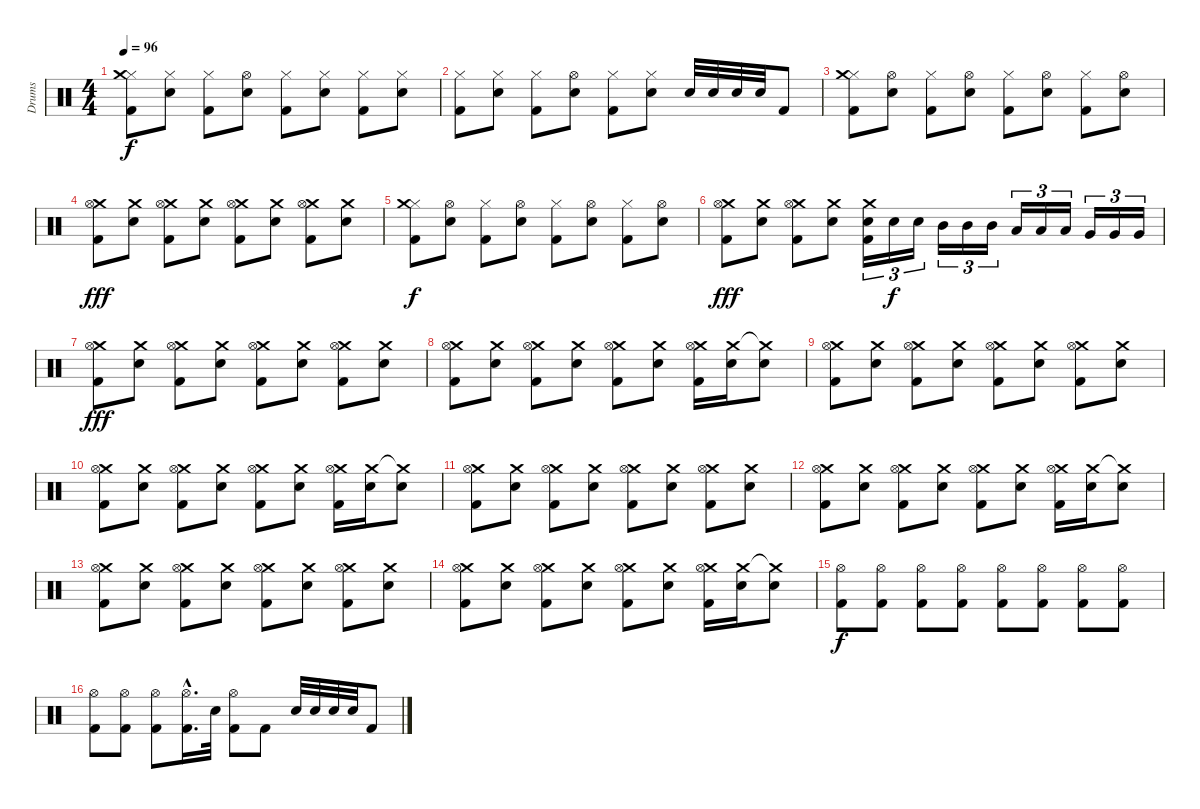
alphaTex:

\track ("Drums" "Drums") {instrument percussion}
\staff {score}
\articulation defaults
\ts (4 4)
\tempo 96
\clef neutral
\ks c
("Hi-Hat (closed)" "Crash medium (hit)" "Kick (hit) 2").8{dy f} ("Hi-Hat (closed)" "Snare (hit) 2").8 ("Hi-Hat (closed)" "Kick (hit) 2").8 ("Hi-Hat (open)" "Snare (hit) 2").8 ("Hi-Hat (closed)" "Kick (hit) 2").8 ("Hi-Hat (closed)" "Snare (hit) 2").8 ("Hi-Hat (closed)" "Kick (hit) 2").8 ("Hi-Hat (closed)" "Snare (hit) 2").8 |
("Hi-Hat (closed)" "Kick (hit) 2").8 ("Hi-Hat (closed)" "Snare (hit) 2").8 ("Hi-Hat (closed)" "Kick (hit) 2").8 ("Hi-Hat (open)" "Snare (hit) 2").8 ("Hi-Hat (closed)" "Kick (hit) 2").8 ("Hi-Hat (closed)" "Snare (hit) 2").8 "Snare (hit) 2".32 "Snare (hit) 2".32 "Snare (hit) 2".32 "Snare (hit) 2".32 "Kick (hit) 2".8 |
("Hi-Hat (closed)" "Crash medium (hit)" "Kick (hit) 2").8 ("Hi-Hat (open)" "Snare (hit) 2").8 ("Hi-Hat (closed)" "Kick (hit) 2").8 ("Hi-Hat (open)" "Snare (hit) 2").8 ("Hi-Hat (closed)" "Kick (hit) 2").8 ("Hi-Hat (open)" "Snare (hit) 2").8 ("Hi-Hat (closed)" "Kick (hit) 2").8 ("Hi-Hat (open)" "Snare (hit) 2").8 |
("Crash medium (hit)" "Hi-Hat (open)" "Kick (hit) 2").8{dy fff} ("Crash medium (hit)" "Snare (hit) 2").8 ("Crash medium (hit)" "Hi-Hat (open)" "Kick (hit) 2").8 ("Crash medium (hit)" "Snare (hit) 2").8 ("Crash medium (hit)" "Hi-Hat (open)" "Kick (hit) 2").8 ("Crash medium (hit)" "Snare (hit) 2").8 ("Crash medium (hit)" "Hi-Hat (open)" "Kick (hit) 2").8 ("Crash medium (hit)" "Snare (hit) 2").8 |
("Hi-Hat (closed)" "Crash medium (hit)" "Kick (hit) 2").8{dy f} ("Hi-Hat (open)" "Snare (hit) 2").8 ("Hi-Hat (closed)" "Kick (hit) 2").8 ("Hi-Hat (open)" "Snare (hit) 2").8 ("Hi-Hat (closed)" "Kick (hit) 2").8 ("Hi-Hat (open)" "Snare (hit) 2").8 ("Hi-Hat (closed)" "Kick (hit) 2").8 ("Hi-Hat (open)" "Snare (hit) 2").8 |
("Crash medium (hit)" "Hi-Hat (open)" "Kick (hit) 2").8{dy fff} ("Crash medium (hit)" "Snare (hit) 2").8 ("Crash medium (hit)" "Hi-Hat (open)" "Kick (hit) 2").8 ("Crash medium (hit)" "Snare (hit) 2").8 ("Crash medium (hit)" "Snare (hit) 2" "Kick (hit) 2").16{tu (3 2)} "Snare (hit) 2".16{tu (3 2) dy f} "Snare (hit) 2".16{tu (3 2)} "Mid Tom (hit)".16{tu (3 2)} "Mid Tom (hit)".16{tu (3 2)} "Mid Tom (hit)".16{tu (3 2)} "Low Tom (hit)".16{tu (3 2)} "Low Tom (hit)".16{tu (3 2)} "Low Tom (hit)".16{tu (3 2)} "Very Low Tom (hit)".16{tu (3 2)} "Very Low Tom (hit)".16{tu (3 2)} "Very Low Tom (hit)".16{tu (3 2)} |
("Crash medium (hit)" "Hi-Hat (open)" "Kick (hit) 2").8{dy fff} ("Crash medium (hit)" "Snare (hit) 2").8 ("Crash medium (hit)" "Hi-Hat (open)" "Kick (hit) 2").8 ("Crash medium (hit)" "Snare (hit) 2").8 ("Crash medium (hit)" "Hi-Hat (open)" "Kick (hit) 2").8 ("Crash medium (hit)" "Snare (hit) 2").8 ("Crash medium (hit)" "Hi-Hat (open)" "Kick (hit) 2").8 ("Crash medium (hit)" "Snare (hit) 2").8 |
("Crash medium (hit)" "Hi-Hat (open)" "Kick (hit) 2").8 ("Crash medium (hit)" "Snare (hit) 2").8 ("Crash medium (hit)" "Hi-Hat (open)" "Kick (hit) 2").8 ("Crash medium (hit)" "Snare (hit) 2").8 ("Crash medium (hit)" "Hi-Hat (open)" "Kick (hit) 2").8 ("Crash medium (hit)" "Snare (hit) 2").8 ("Crash medium (hit)" "Hi-Hat (open)" "Kick (hit) 2").16 ("Crash medium (hit)" "Snare (hit) 2").16 ("Crash medium (hit)"{t} "Snare (hit) 2").8 |
("Crash medium (hit)" "Hi-Hat (open)" "Kick (hit) 2").8 ("Crash medium (hit)" "Snare (hit) 2").8 ("Crash medium (hit)" "Hi-Hat (open)" "Kick (hit) 2").8 ("Crash medium (hit)" "Snare (hit) 2").8 ("Crash medium (hit)" "Hi-Hat (open)" "Kick (hit) 2").8 ("Crash medium (hit)" "Snare (hit) 2").8 ("Crash medium (hit)" "Hi-Hat (open)" "Kick (hit) 2").8 ("Crash medium (hit)" "Snare (hit) 2").8 |
("Crash medium (hit)" "Hi-Hat (open)" "Kick (hit) 2").8 ("Crash medium (hit)" "Snare (hit) 2").8 ("Crash medium (hit)" "Hi-Hat (open)" "Kick (hit) 2").8 ("Crash medium (hit)" "Snare (hit) 2").8 ("Crash medium (hit)" "Hi-Hat (open)" "Kick (hit) 2").8 ("Crash medium (hit)" "Snare (hit) 2").8 ("Crash medium (hit)" "Hi-Hat (open)" "Kick (hit) 2").16 ("Crash medium (hit)" "Snare (hit) 2").16 ("Crash medium (hit)"{t} "Snare (hit) 2").8 |
("Crash medium (hit)" "Hi-Hat (open)" "Kick (hit) 2").8 ("Crash medium (hit)" "Snare (hit) 2").8 ("Crash medium (hit)" "Hi-Hat (open)" "Kick (hit) 2").8 ("Crash medium (hit)" "Snare (hit) 2").8 ("Crash medium (hit)" "Hi-Hat (open)" "Kick (hit) 2").8 ("Crash medium (hit)" "Snare (hit) 2").8 ("Crash medium (hit)" "Hi-Hat (open)" "Kick (hit) 2").8 ("Crash medium (hit)" "Snare (hit) 2").8 |
("Crash medium (hit)" "Hi-Hat (open)" "Kick (hit) 2").8 ("Crash medium (hit)" "Snare (hit) 2").8 ("Crash medium (hit)" "Hi-Hat (open)" "Kick (hit) 2").8 ("Crash medium (hit)" "Snare (hit) 2").8 ("Crash medium (hit)" "Hi-Hat (open)" "Kick (hit) 2").8 ("Crash medium (hit)" "Snare (hit) 2").8 ("Crash medium (hit)" "Hi-Hat (open)" "Kick (hit) 2").16 ("Crash medium (hit)" "Snare (hit) 2").16 ("Crash medium (hit)"{t} "Snare (hit) 2").8 |
("Crash medium (hit)" "Hi-Hat (open)" "Kick (hit) 2").8 ("Crash medium (hit)" "Snare (hit) 2").8 ("Crash medium (hit)" "Hi-Hat (open)" "Kick (hit) 2").8 ("Crash medium (hit)" "Snare (hit) 2").8 ("Crash medium (hit)" "Hi-Hat (open)" "Kick (hit) 2").8 ("Crash medium (hit)" "Snare (hit) 2").8 ("Crash medium (hit)" "Hi-Hat (open)" "Kick (hit) 2").8 ("Crash medium (hit)" "Snare (hit) 2").8 |
("Crash medium (hit)" "Hi-Hat (open)" "Kick (hit) 2").8 ("Crash medium (hit)" "Snare (hit) 2").8 ("Crash medium (hit)" "Hi-Hat (open)" "Kick (hit) 2").8 ("Crash medium (hit)" "Snare (hit) 2").8 ("Crash medium (hit)" "Hi-Hat (open)" "Kick (hit) 2").8 ("Crash medium (hit)" "Snare (hit) 2").8 ("Crash medium (hit)" "Hi-Hat (open)" "Kick (hit) 2").16 ("Crash medium (hit)" "Snare (hit) 2").16 ("Crash medium (hit)"{t} "Snare (hit) 2").8 |
("Hi-Hat (open)" "Kick (hit) 2").8{dy f volume 8} ("Hi-Hat (open)" "Kick (hit) 2").8{volume 13} ("Hi-Hat (open)" "Kick (hit) 2").8 ("Hi-Hat (open)" "Kick (hit) 2").8 ("Hi-Hat (open)" "Kick (hit) 2").8 ("Hi-Hat (open)" "Kick (hit) 2").8 ("Hi-Hat (open)" "Kick (hit) 2").8 ("Hi-Hat (open)" "Kick (hit) 2").8 |
("Hi-Hat (open)" "Kick (hit) 2").8 ("Hi-Hat (open)" "Kick (hit) 2").8 ("Hi-Hat (open)" "Kick (hit) 2").8 ("Hi-Hat (open)"{hac} "Kick (hit) 2"{hac}).16{d} "Snare (hit) 2".32 ("Hi-Hat (open)" "Kick (hit) 2").8 "Kick (hit) 2".8 "Snare (hit) 2".32 "Snare (hit) 2".32 "Snare (hit) 2".32 "Snare (hit) 2".32 "Kick (hit) 2".8
